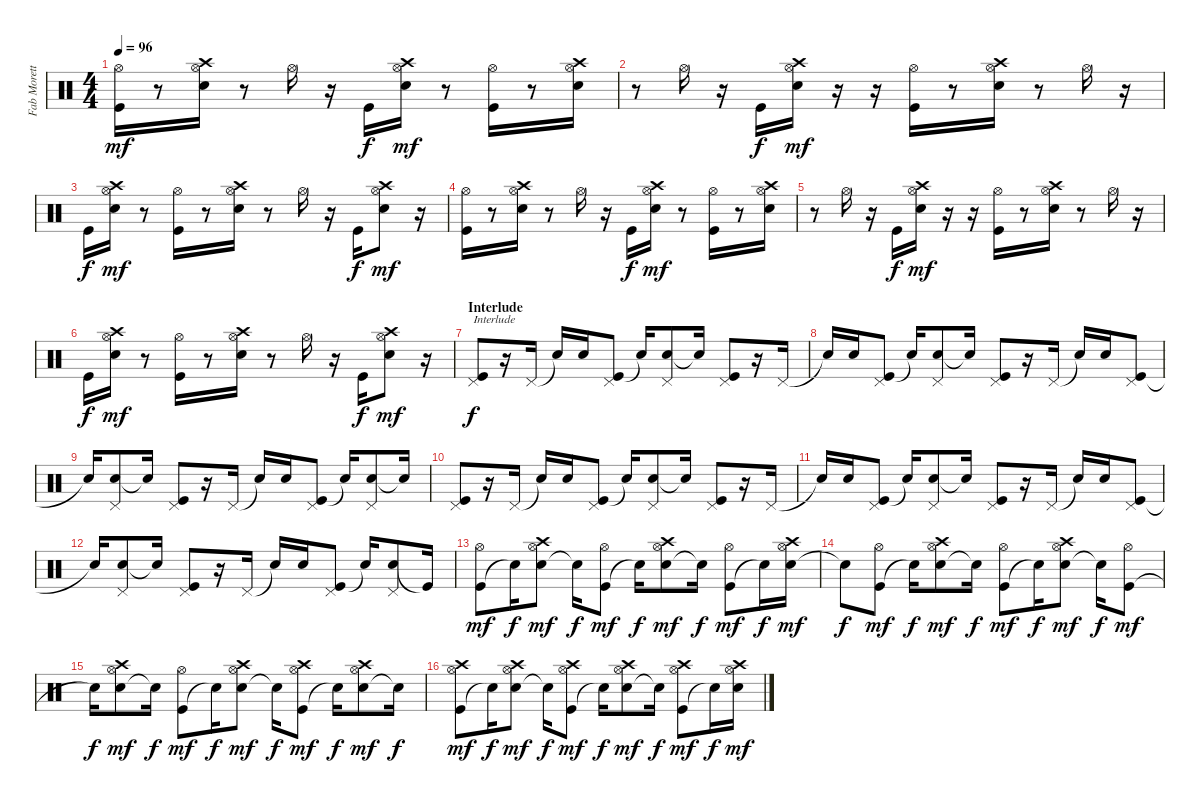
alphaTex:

\track ("Fab Moretti" "Fab Morett") {instrument percussion}
\staff {score}
\articulation defaults
\ts (4 4)
\tempo 96
\clef neutral
\ks c
("Kick (hit)" "Hi-Hat (open)").16{dy mf} r.8 ("Crash high (hit)" "Electric Snare (hit)" "Hi-Hat (open)").16 r.8 "Hi-Hat (open)".16 r.16 "Kick (hit)".16{dy f} ("Electric Snare (hit)" "Crash high (hit)" "Hi-Hat (open)").16{dy mf} r.8 ("Kick (hit)" "Hi-Hat (open)").16 r.8 ("Electric Snare (hit)" "Crash high (hit)" "Hi-Hat (open)").16 |
r.8 "Hi-Hat (open)".16 r.16 "Kick (hit)".16{dy f} ("Electric Snare (hit)" "Crash high (hit)" "Hi-Hat (open)").16{dy mf} r.16 r.16 ("Kick (hit)" "Hi-Hat (open)").16 r.8 ("Electric Snare (hit)" "Crash high (hit)" "Hi-Hat (open)").16 r.8 "Hi-Hat (open)".16 r.16 |
"Kick (hit)".16{dy f} ("Electric Snare (hit)" "Crash high (hit)" "Hi-Hat (open)").16{dy mf} r.8 ("Kick (hit)" "Hi-Hat (open)").16 r.8 ("Electric Snare (hit)" "Crash high (hit)" "Hi-Hat (open)").16 r.8 "Hi-Hat (open)".16 r.16 "Kick (hit)".16{dy f} ("Crash high (hit)" "Electric Snare (hit)" "Hi-Hat (open)").8{dy mf} r.16 |
("Kick (hit)" "Hi-Hat (open)").16 r.8 ("Crash high (hit)" "Electric Snare (hit)" "Hi-Hat (open)").16 r.8 "Hi-Hat (open)".16 r.16 "Kick (hit)".16{dy f} ("Electric Snare (hit)" "Crash high (hit)" "Hi-Hat (open)").16{dy mf} r.8 ("Kick (hit)" "Hi-Hat (open)").16 r.8 ("Electric Snare (hit)" "Crash high (hit)" "Hi-Hat (open)").16 |
r.8 "Hi-Hat (open)".16 r.16 "Kick (hit)".16{dy f} ("Electric Snare (hit)" "Crash high (hit)" "Hi-Hat (open)").16{dy mf} r.16 r.16 ("Kick (hit)" "Hi-Hat (open)").16 r.8 ("Electric Snare (hit)" "Crash high (hit)" "Hi-Hat (open)").16 r.8 "Hi-Hat (open)".16 r.16 |
"Kick (hit)".16{dy f} ("Electric Snare (hit)" "Crash high (hit)" "Hi-Hat (open)").16{dy mf} r.8 ("Kick (hit)" "Hi-Hat (open)").16 r.8 ("Electric Snare (hit)" "Crash high (hit)" "Hi-Hat (open)").16 r.8 "Hi-Hat (open)".16 r.16 "Kick (hit)".16{dy f} ("Crash high (hit)" "Electric Snare (hit)" "Hi-Hat (open)").8{dy mf} r.16 |
\section ("" "Interlude")
("Kick (hit)" "Pedal Hi-Hat (hit)").8{txt "Interlude" dy f} r.16 "Pedal Hi-Hat (hit)".16 "Snare (hit)"{t}.16 "Electric Snare (hit)".16 ("Kick (hit)" "Pedal Hi-Hat (hit)").8 "Snare (hit)"{t}.16 ("Electric Snare (hit)" "Pedal Hi-Hat (hit)").8 "Snare (hit)"{t}.16 ("Kick (hit)" "Pedal Hi-Hat (hit)").8 r.16 "Pedal Hi-Hat (hit)".16 |
"Snare (hit)"{t}.16 "Electric Snare (hit)".16 ("Kick (hit)" "Pedal Hi-Hat (hit)").8 "Snare (hit)"{t}.16 ("Electric Snare (hit)" "Pedal Hi-Hat (hit)").8 "Snare (hit)"{t}.16 ("Kick (hit)" "Pedal Hi-Hat (hit)").8 r.16 "Pedal Hi-Hat (hit)".16 "Snare (hit)"{t}.16 "Electric Snare (hit)".16 ("Kick (hit)" "Pedal Hi-Hat (hit)").8 |
"Snare (hit)"{t}.16 ("Electric Snare (hit)" "Pedal Hi-Hat (hit)").8 "Snare (hit)"{t}.16 ("Kick (hit)" "Pedal Hi-Hat (hit)").8 r.16 "Pedal Hi-Hat (hit)".16 "Snare (hit)"{t}.16 "Electric Snare (hit)".16 ("Kick (hit)" "Pedal Hi-Hat (hit)").8 "Snare (hit)"{t}.16 ("Electric Snare (hit)" "Pedal Hi-Hat (hit)").8 "Snare (hit)"{t}.16 |
("Kick (hit)" "Pedal Hi-Hat (hit)").8 r.16 "Pedal Hi-Hat (hit)".16 "Snare (hit)"{t}.16 "Electric Snare (hit)".16 ("Kick (hit)" "Pedal Hi-Hat (hit)").8 "Snare (hit)"{t}.16 ("Electric Snare (hit)" "Pedal Hi-Hat (hit)").8 "Snare (hit)"{t}.16 ("Kick (hit)" "Pedal Hi-Hat (hit)").8 r.16 "Pedal Hi-Hat (hit)".16 |
"Snare (hit)"{t}.16 "Electric Snare (hit)".16 ("Kick (hit)" "Pedal Hi-Hat (hit)").8 "Snare (hit)"{t}.16 ("Electric Snare (hit)" "Pedal Hi-Hat (hit)").8 "Snare (hit)"{t}.16 ("Kick (hit)" "Pedal Hi-Hat (hit)").8 r.16 "Pedal Hi-Hat (hit)".16 "Snare (hit)"{t}.16 "Electric Snare (hit)".16 ("Kick (hit)" "Pedal Hi-Hat (hit)").8 |
"Snare (hit)"{t}.16 ("Electric Snare (hit)" "Pedal Hi-Hat (hit)").8 "Snare (hit)"{t}.16 ("Kick (hit)" "Pedal Hi-Hat (hit)").8 r.16 "Pedal Hi-Hat (hit)".16 "Snare (hit)"{t}.16 "Electric Snare (hit)".16 ("Kick (hit)" "Pedal Hi-Hat (hit)").8 "Snare (hit)"{t}.16 ("Electric Snare (hit)" "Pedal Hi-Hat (hit)").8 "Kick (hit)"{t}.16 |
("Kick (hit)" "Hi-Hat (open)").8{dy mf} "Snare (hit)"{t}.16{dy f} ("Electric Snare (hit)" "Crash high (hit)" "Hi-Hat (open)").8{dy mf} "Snare (hit)"{t}.16{dy f} ("Kick (hit)" "Hi-Hat (open)").8{dy mf} "Snare (hit)"{t}.16{dy f} ("Electric Snare (hit)" "Crash high (hit)" "Hi-Hat (open)").8{dy mf} "Snare (hit)"{t}.16{dy f} ("Kick (hit)" "Hi-Hat (open)").8{dy mf} "Snare (hit)"{t}.16{dy f} ("Electric Snare (hit)" "Crash high (hit)" "Hi-Hat (open)").16{dy mf} |
"Snare (hit)"{t}.8{dy f} ("Kick (hit)" "Hi-Hat (open)").8{dy mf} "Snare (hit)"{t}.16{dy f} ("Electric Snare (hit)" "Crash high (hit)" "Hi-Hat (open)").8{dy mf} "Snare (hit)"{t}.16{dy f} ("Kick (hit)" "Hi-Hat (open)").8{dy mf} "Snare (hit)"{t}.16{dy f} ("Electric Snare (hit)" "Crash high (hit)" "Hi-Hat (open)").8{dy mf} "Snare (hit)"{t}.16{dy f} ("Kick (hit)" "Hi-Hat (open)").8{dy mf} |
"Snare (hit)"{t}.16{dy f} ("Electric Snare (hit)" "Crash high (hit)" "Hi-Hat (open)").8{dy mf} "Snare (hit)"{t}.16{dy f} ("Kick (hit)" "Hi-Hat (open)").8{dy mf} "Snare (hit)"{t}.16{dy f} ("Electric Snare (hit)" "Crash high (hit)" "Hi-Hat (open)").8{dy mf} "Snare (hit)"{t}.16{dy f} ("Kick (hit)" "Hi-Hat (open)" "Crash high (hit)").8{dy mf} "Snare (hit)"{t}.16{dy f} ("Electric Snare (hit)" "Crash high (hit)" "Hi-Hat (open)").8{dy mf} "Snare (hit)"{t}.16{dy f} |
("Kick (hit)" "Hi-Hat (open)" "Crash high (hit)").8{dy mf} "Snare (hit)"{t}.16{dy f} ("Electric Snare (hit)" "Crash high (hit)" "Hi-Hat (open)").8{dy mf} "Snare (hit)"{t}.16{dy f} ("Kick (hit)" "Hi-Hat (open)" "Crash high (hit)").8{dy mf} "Snare (hit)"{t}.16{dy f} ("Electric Snare (hit)" "Crash high (hit)" "Hi-Hat (open)").8{dy mf} "Snare (hit)"{t}.16{dy f} ("Kick (hit)" "Hi-Hat (open)" "Crash high (hit)").8{dy mf} "Snare (hit)"{t}.16{dy f} ("Electric Snare (hit)" "Crash high (hit)" "Hi-Hat (open)").16{dy mf}
